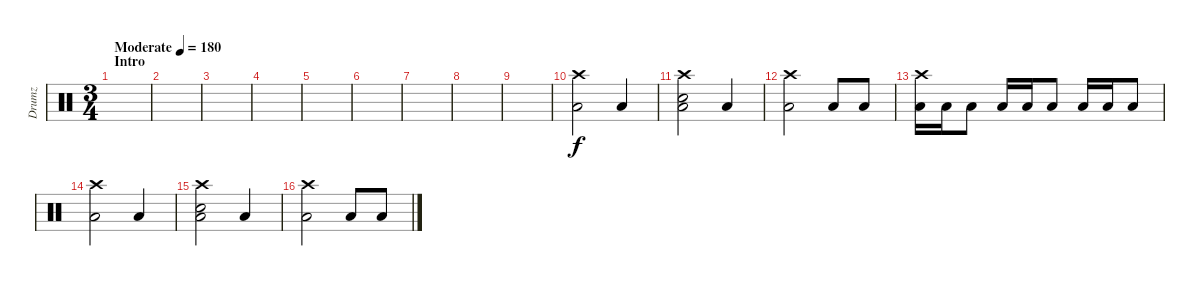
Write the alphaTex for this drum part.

\track ("Drumz" "Drumz") {instrument percussion}
\staff {score}
\articulation defaults
\ts (3 4)
\section ("" "Intro")
\tempo (180 "Moderate")
\clef neutral
\ks c
|
|
|
|
|
|
|
|
|
("Low Floor Tom (hit)" "Crash high (hit)").2 "Low Floor Tom (hit)".4 |
("Low Floor Tom (hit)" "Crash high (hit)" "Electric Snare (hit)").2 "Low Floor Tom (hit)".4 |
("Low Floor Tom (hit)" "Crash high (hit)").2 "Low Floor Tom (hit)".8 "Low Floor Tom (hit)".8 |
("Low Floor Tom (hit)" "Crash high (hit)").16 "Low Floor Tom (hit)".16 "Low Floor Tom (hit)".8 "Low Floor Tom (hit)".16 "Low Floor Tom (hit)".16 "Low Floor Tom (hit)".8 "Low Floor Tom (hit)".16 "Low Floor Tom (hit)".16 "Low Floor Tom (hit)".8 |
("Low Floor Tom (hit)" "Crash high (hit)").2 "Low Floor Tom (hit)".4 |
("Low Floor Tom (hit)" "Crash high (hit)" "Electric Snare (hit)").2 "Low Floor Tom (hit)".4 |
("Low Floor Tom (hit)" "Crash high (hit)").2 "Low Floor Tom (hit)".8 "Low Floor Tom (hit)".8
